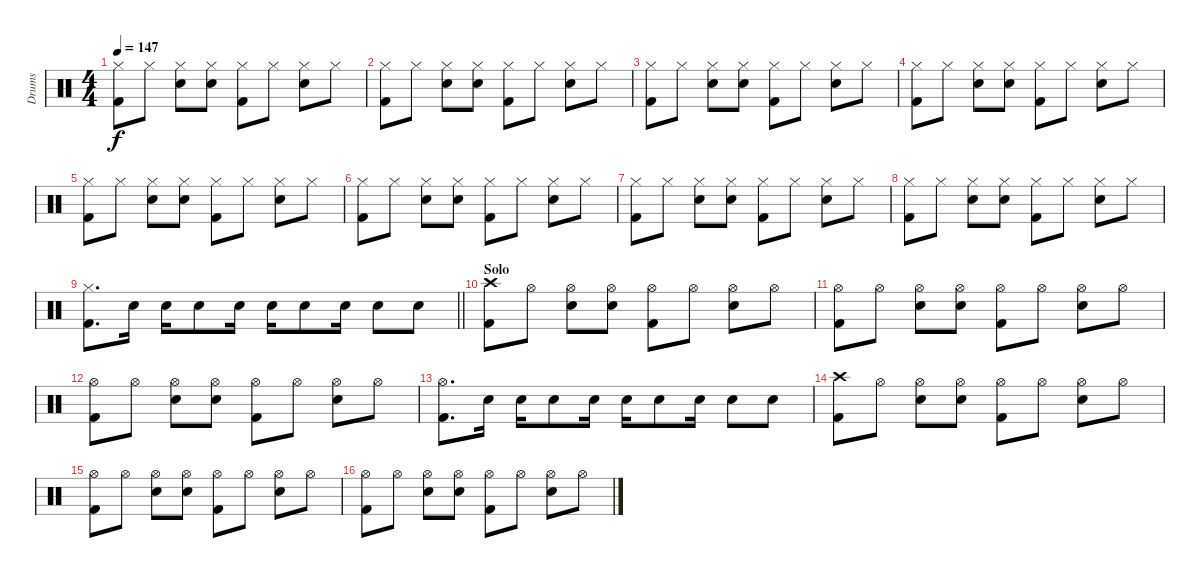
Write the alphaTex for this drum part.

\track ("Drums" "Drums") {instrument percussion}
\staff {score}
\articulation defaults
\ts (4 4)
\tempo 147
\clef neutral
\ks c
("Hi-Hat (closed)" "Kick (hit) 2").8{dy f} "Hi-Hat (closed)".8 ("Hi-Hat (closed)" "Snare (hit) 2").8 ("Hi-Hat (closed)" "Snare (hit) 2").8 ("Hi-Hat (closed)" "Kick (hit) 2").8 "Hi-Hat (closed)".8 ("Hi-Hat (closed)" "Snare (hit) 2").8 "Hi-Hat (closed)".8 |
("Hi-Hat (closed)" "Kick (hit) 2").8 "Hi-Hat (closed)".8 ("Hi-Hat (closed)" "Snare (hit) 2").8 ("Hi-Hat (closed)" "Snare (hit) 2").8 ("Hi-Hat (closed)" "Kick (hit) 2").8 "Hi-Hat (closed)".8 ("Hi-Hat (closed)" "Snare (hit) 2").8 "Hi-Hat (closed)".8 |
("Hi-Hat (closed)" "Kick (hit) 2").8 "Hi-Hat (closed)".8 ("Hi-Hat (closed)" "Snare (hit) 2").8 ("Hi-Hat (closed)" "Snare (hit) 2").8 ("Hi-Hat (closed)" "Kick (hit) 2").8 "Hi-Hat (closed)".8 ("Hi-Hat (closed)" "Snare (hit) 2").8 "Hi-Hat (closed)".8 |
("Hi-Hat (closed)" "Kick (hit) 2").8 "Hi-Hat (closed)".8 ("Hi-Hat (closed)" "Snare (hit) 2").8 ("Hi-Hat (closed)" "Snare (hit) 2").8 ("Hi-Hat (closed)" "Kick (hit) 2").8 "Hi-Hat (closed)".8 ("Hi-Hat (closed)" "Snare (hit) 2").8 "Hi-Hat (closed)".8 |
("Hi-Hat (closed)" "Kick (hit) 2").8 "Hi-Hat (closed)".8 ("Hi-Hat (closed)" "Snare (hit) 2").8 ("Hi-Hat (closed)" "Snare (hit) 2").8 ("Hi-Hat (closed)" "Kick (hit) 2").8 "Hi-Hat (closed)".8 ("Hi-Hat (closed)" "Snare (hit) 2").8 "Hi-Hat (closed)".8 |
("Hi-Hat (closed)" "Kick (hit) 2").8 "Hi-Hat (closed)".8 ("Hi-Hat (closed)" "Snare (hit) 2").8 ("Hi-Hat (closed)" "Snare (hit) 2").8 ("Hi-Hat (closed)" "Kick (hit) 2").8 "Hi-Hat (closed)".8 ("Hi-Hat (closed)" "Snare (hit) 2").8 "Hi-Hat (closed)".8 |
("Hi-Hat (closed)" "Kick (hit) 2").8 "Hi-Hat (closed)".8 ("Hi-Hat (closed)" "Snare (hit) 2").8 ("Hi-Hat (closed)" "Snare (hit) 2").8 ("Hi-Hat (closed)" "Kick (hit) 2").8 "Hi-Hat (closed)".8 ("Hi-Hat (closed)" "Snare (hit) 2").8 "Hi-Hat (closed)".8 |
("Hi-Hat (closed)" "Kick (hit) 2").8 "Hi-Hat (closed)".8 ("Hi-Hat (closed)" "Snare (hit) 2").8 ("Hi-Hat (closed)" "Snare (hit) 2").8 ("Hi-Hat (closed)" "Kick (hit) 2").8 "Hi-Hat (closed)".8 ("Hi-Hat (closed)" "Snare (hit) 2").8 "Hi-Hat (closed)".8 |
\barLineRight lightlight
("Hi-Hat (closed)" "Kick (hit) 2").8{d} "Snare (hit) 2".16 "Snare (hit) 2".16 "Snare (hit) 2".8 "Snare (hit) 2".16 "Snare (hit) 2".16 "Snare (hit) 2".8 "Snare (hit) 2".16 "Snare (hit) 2".8 "Snare (hit) 2".8 |
\section ("" "Solo")
("Crash high (hit)" "Kick (hit) 2").8 "Hi-Hat (open)".8 ("Hi-Hat (open)" "Snare (hit) 2").8 ("Hi-Hat (open)" "Snare (hit) 2").8 ("Hi-Hat (open)" "Kick (hit) 2").8 "Hi-Hat (open)".8 ("Hi-Hat (open)" "Snare (hit) 2").8 "Hi-Hat (open)".8 |
("Hi-Hat (open)" "Kick (hit) 2").8 "Hi-Hat (open)".8 ("Hi-Hat (open)" "Snare (hit) 2").8 ("Hi-Hat (open)" "Snare (hit) 2").8 ("Hi-Hat (open)" "Kick (hit) 2").8 "Hi-Hat (open)".8 ("Hi-Hat (open)" "Snare (hit) 2").8 "Hi-Hat (open)".8 |
("Hi-Hat (open)" "Kick (hit) 2").8 "Hi-Hat (open)".8 ("Hi-Hat (open)" "Snare (hit) 2").8 ("Hi-Hat (open)" "Snare (hit) 2").8 ("Hi-Hat (open)" "Kick (hit) 2").8 "Hi-Hat (open)".8 ("Hi-Hat (open)" "Snare (hit) 2").8 "Hi-Hat (open)".8 |
("Hi-Hat (open)" "Kick (hit) 2").8{d} "Snare (hit) 2".16 "Snare (hit) 2".16 "Snare (hit) 2".8 "Snare (hit) 2".16 "Snare (hit) 2".16 "Snare (hit) 2".8 "Snare (hit) 2".16 "Snare (hit) 2".8 "Snare (hit) 2".8 |
("Crash high (hit)" "Kick (hit) 2").8 "Hi-Hat (open)".8 ("Hi-Hat (open)" "Snare (hit) 2").8 ("Hi-Hat (open)" "Snare (hit) 2").8 ("Hi-Hat (open)" "Kick (hit) 2").8 "Hi-Hat (open)".8 ("Hi-Hat (open)" "Snare (hit) 2").8 "Hi-Hat (open)".8 |
("Hi-Hat (open)" "Kick (hit) 2").8 "Hi-Hat (open)".8 ("Hi-Hat (open)" "Snare (hit) 2").8 ("Hi-Hat (open)" "Snare (hit) 2").8 ("Hi-Hat (open)" "Kick (hit) 2").8 "Hi-Hat (open)".8 ("Hi-Hat (open)" "Snare (hit) 2").8 "Hi-Hat (open)".8 |
("Hi-Hat (open)" "Kick (hit) 2").8 "Hi-Hat (open)".8 ("Hi-Hat (open)" "Snare (hit) 2").8 ("Hi-Hat (open)" "Snare (hit) 2").8 ("Hi-Hat (open)" "Kick (hit) 2").8 "Hi-Hat (open)".8 ("Hi-Hat (open)" "Snare (hit) 2").8 "Hi-Hat (open)".8
